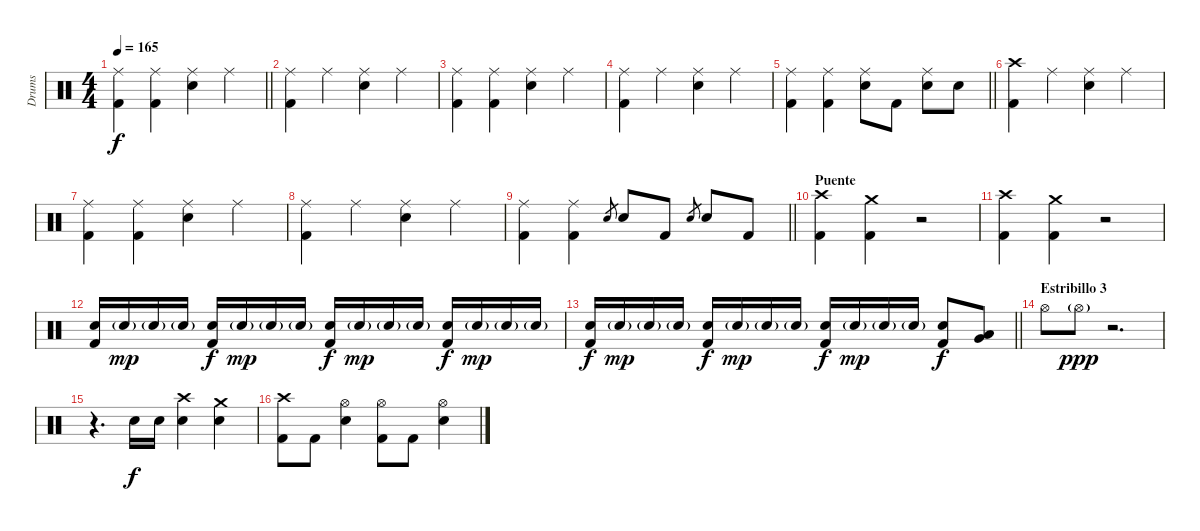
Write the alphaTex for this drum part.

\track ("Drums" "Drums") {instrument percussion}
\staff {score}
\articulation defaults
\ts (4 4)
\tempo 165
\clef neutral
\barLineRight lightlight
\ks c
("Ride (middle)" "Kick (hit) 2").4{dy f} ("Ride (middle)" "Kick (hit) 2").4 ("Ride (middle)" "Electric Snare (hit)").4 "Ride (middle)".4 |
("Ride (middle)" "Kick (hit) 2").4 "Ride (middle)".4 ("Ride (middle)" "Electric Snare (hit)").4 "Ride (middle)".4 |
("Ride (middle)" "Kick (hit) 2").4 ("Ride (middle)" "Kick (hit) 2").4 ("Ride (middle)" "Electric Snare (hit)").4 "Ride (middle)".4 |
("Ride (middle)" "Kick (hit) 2").4 "Ride (middle)".4 ("Ride (middle)" "Electric Snare (hit)").4 "Ride (middle)".4 |
\barLineRight lightlight
("Ride (middle)" "Kick (hit) 2").4 ("Ride (middle)" "Kick (hit) 2").4 ("Ride (middle)" "Electric Snare (hit)").8 "Kick (hit) 2".8 ("Ride (middle)" "Electric Snare (hit)").8 "Electric Snare (hit)".8 |
("Crash high (hit)" "Kick (hit) 2").4 "Ride (middle)".4 ("Ride (middle)" "Electric Snare (hit)").4 "Ride (middle)".4 |
("Ride (middle)" "Kick (hit) 2").4 ("Ride (middle)" "Kick (hit) 2").4 ("Ride (middle)" "Electric Snare (hit)").4 "Ride (middle)".4 |
("Ride (middle)" "Kick (hit) 2").4 "Ride (middle)".4 ("Ride (middle)" "Electric Snare (hit)").4 "Ride (middle)".4 |
\barLineRight lightlight
("Ride (middle)" "Kick (hit) 2").4 ("Ride (middle)" "Kick (hit) 2").4 "Electric Snare (hit)".8{gr} "Electric Snare (hit)".8 "Kick (hit) 2".8 "Electric Snare (hit)".8{gr} "Electric Snare (hit)".8 "Kick (hit) 2".8 |
\section ("" "Puente")
("Crash high (hit)" "Kick (hit) 2").4 ("Crash medium (hit)" "Kick (hit) 2").4 r.2 |
("Crash high (hit)" "Kick (hit) 2").4 ("Crash medium (hit)" "Kick (hit) 2").4 r.2 |
("Electric Snare (hit)" "Kick (hit) 2").16 "Electric Snare (hit)"{g}.16{dy mp} "Electric Snare (hit)"{g}.16 "Electric Snare (hit)"{g}.16 ("Electric Snare (hit)" "Kick (hit) 2").16{dy f} "Electric Snare (hit)"{g}.16{dy mp} "Electric Snare (hit)"{g}.16 "Electric Snare (hit)"{g}.16 ("Electric Snare (hit)" "Kick (hit) 2").16{dy f} "Electric Snare (hit)"{g}.16{dy mp} "Electric Snare (hit)"{g}.16 "Electric Snare (hit)"{g}.16 ("Electric Snare (hit)" "Kick (hit) 2").16{dy f} "Electric Snare (hit)"{g}.16{dy mp} "Electric Snare (hit)"{g}.16 "Electric Snare (hit)"{g}.16 |
\barLineRight lightlight
("Electric Snare (hit)" "Kick (hit) 2").16{dy f} "Electric Snare (hit)"{g}.16{dy mp} "Electric Snare (hit)"{g}.16 "Electric Snare (hit)"{g}.16 ("Electric Snare (hit)" "Kick (hit) 2").16{dy f} "Electric Snare (hit)"{g}.16{dy mp} "Electric Snare (hit)"{g}.16 "Electric Snare (hit)"{g}.16 ("Electric Snare (hit)" "Kick (hit) 2").16{dy f} "Electric Snare (hit)"{g}.16{dy mp} "Electric Snare (hit)"{g}.16 "Electric Snare (hit)"{g}.16 ("Electric Snare (hit)" "Kick (hit) 2").8{dy f} ("Very Low Tom (hit)" "Low Floor Tom (hit)").8 |
\section ("" "Estribillo 3")
"Hi-Hat (open)".8 "Hi-Hat (open)"{g}.8{dy ppp} r.2{d} |
r.4{d} "Electric Snare (hit)".16{dy f} "Electric Snare (hit)".16 ("Crash high (hit)" "Electric Snare (hit)").4 ("Crash medium (hit)" "Electric Snare (hit)").4 |
("Crash high (hit)" "Kick (hit) 2").8 "Kick (hit) 2".8 ("Hi-Hat (open)" "Electric Snare (hit)").4 ("Hi-Hat (open)" "Kick (hit) 2").8 "Kick (hit) 2".8 ("Hi-Hat (open)" "Electric Snare (hit)").4
